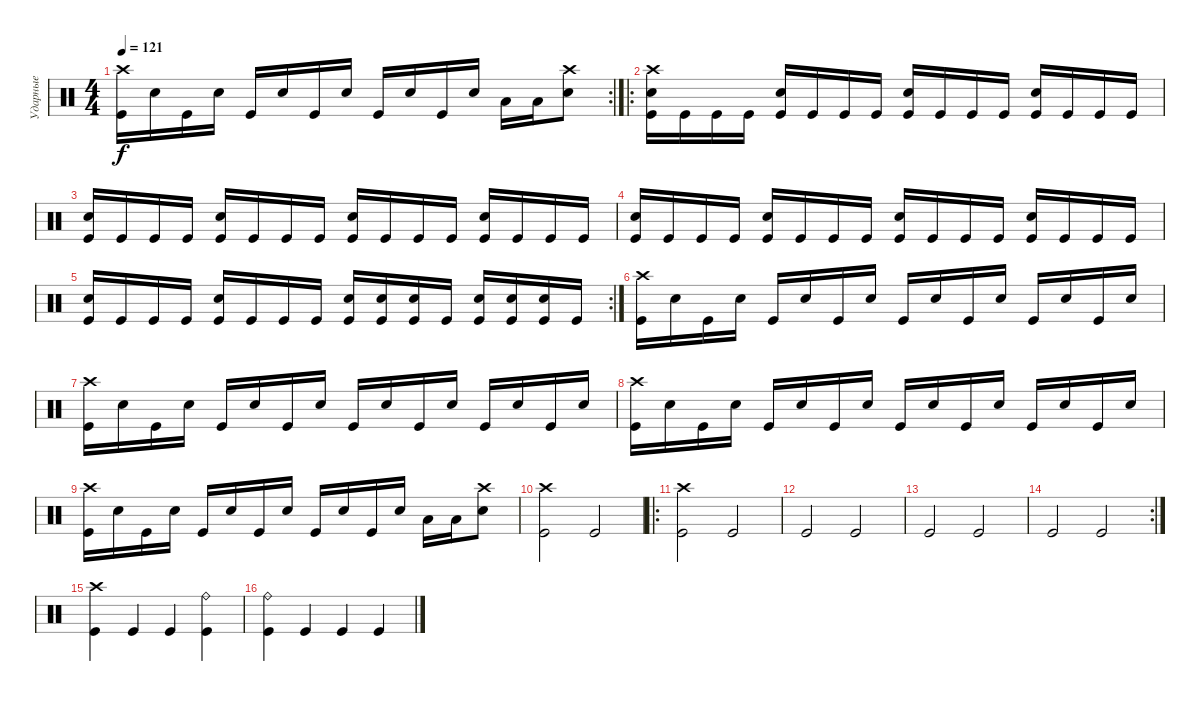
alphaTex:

\track ("Ударные" "Ударные") {instrument percussion}
\staff {score}
\articulation defaults
\rc 2
\ts (4 4)
\tempo 121
\clef neutral
\ks c
("Crash high (hit)" "Kick (hit)").16{dy f} "Electric Snare (hit)".16 "Kick (hit)".16 "Electric Snare (hit)".16 "Kick (hit)".16 "Electric Snare (hit)".16 "Kick (hit)".16 "Electric Snare (hit)".16 "Kick (hit)".16 "Electric Snare (hit)".16 "Kick (hit)".16 "Electric Snare (hit)".16 "Low Tom (hit)".16 "Low Tom (hit)".16 ("Crash high (hit)" "Electric Snare (hit)").8 |
\ro
("Crash high (hit)" "Electric Snare (hit)" "Kick (hit)").16 "Kick (hit)".16 "Kick (hit)".16 "Kick (hit)".16 ("Electric Snare (hit)" "Kick (hit)").16 "Kick (hit)".16 "Kick (hit)".16 "Kick (hit)".16 ("Electric Snare (hit)" "Kick (hit)").16 "Kick (hit)".16 "Kick (hit)".16 "Kick (hit)".16 ("Electric Snare (hit)" "Kick (hit)").16 "Kick (hit)".16 "Kick (hit)".16 "Kick (hit)".16 |
("Electric Snare (hit)" "Kick (hit)").16 "Kick (hit)".16 "Kick (hit)".16 "Kick (hit)".16 ("Electric Snare (hit)" "Kick (hit)").16 "Kick (hit)".16 "Kick (hit)".16 "Kick (hit)".16 ("Electric Snare (hit)" "Kick (hit)").16 "Kick (hit)".16 "Kick (hit)".16 "Kick (hit)".16 ("Electric Snare (hit)" "Kick (hit)").16 "Kick (hit)".16 "Kick (hit)".16 "Kick (hit)".16 |
("Electric Snare (hit)" "Kick (hit)").16 "Kick (hit)".16 "Kick (hit)".16 "Kick (hit)".16 ("Electric Snare (hit)" "Kick (hit)").16 "Kick (hit)".16 "Kick (hit)".16 "Kick (hit)".16 ("Electric Snare (hit)" "Kick (hit)").16 "Kick (hit)".16 "Kick (hit)".16 "Kick (hit)".16 ("Electric Snare (hit)" "Kick (hit)").16 "Kick (hit)".16 "Kick (hit)".16 "Kick (hit)".16 |
\rc 2
("Electric Snare (hit)" "Kick (hit)").16 "Kick (hit)".16 "Kick (hit)".16 "Kick (hit)".16 ("Electric Snare (hit)" "Kick (hit)").16 "Kick (hit)".16 "Kick (hit)".16 "Kick (hit)".16 ("Electric Snare (hit)" "Kick (hit)").16 ("Electric Snare (hit)" "Kick (hit)").16 ("Electric Snare (hit)" "Kick (hit)").16 "Kick (hit)".16 ("Electric Snare (hit)" "Kick (hit)").16 ("Electric Snare (hit)" "Kick (hit)").16 ("Electric Snare (hit)" "Kick (hit)").16 "Kick (hit)".16 |
("Crash high (hit)" "Kick (hit)").16 "Electric Snare (hit)".16 "Kick (hit)".16 "Electric Snare (hit)".16 "Kick (hit)".16 "Electric Snare (hit)".16 "Kick (hit)".16 "Electric Snare (hit)".16 "Kick (hit)".16 "Electric Snare (hit)".16 "Kick (hit)".16 "Electric Snare (hit)".16 "Kick (hit)".16 "Electric Snare (hit)".16 "Kick (hit)".16 "Electric Snare (hit)".16 |
("Crash high (hit)" "Kick (hit)").16 "Electric Snare (hit)".16 "Kick (hit)".16 "Electric Snare (hit)".16 "Kick (hit)".16 "Electric Snare (hit)".16 "Kick (hit)".16 "Electric Snare (hit)".16 "Kick (hit)".16 "Electric Snare (hit)".16 "Kick (hit)".16 "Electric Snare (hit)".16 "Kick (hit)".16 "Electric Snare (hit)".16 "Kick (hit)".16 "Electric Snare (hit)".16 |
("Crash high (hit)" "Kick (hit)").16 "Electric Snare (hit)".16 "Kick (hit)".16 "Electric Snare (hit)".16 "Kick (hit)".16 "Electric Snare (hit)".16 "Kick (hit)".16 "Electric Snare (hit)".16 "Kick (hit)".16 "Electric Snare (hit)".16 "Kick (hit)".16 "Electric Snare (hit)".16 "Kick (hit)".16 "Electric Snare (hit)".16 "Kick (hit)".16 "Electric Snare (hit)".16 |
("Crash high (hit)" "Kick (hit)").16 "Electric Snare (hit)".16 "Kick (hit)".16 "Electric Snare (hit)".16 "Kick (hit)".16 "Electric Snare (hit)".16 "Kick (hit)".16 "Electric Snare (hit)".16 "Kick (hit)".16 "Electric Snare (hit)".16 "Kick (hit)".16 "Electric Snare (hit)".16 "Low Tom (hit)".16 "Low Tom (hit)".16 ("Crash high (hit)" "Electric Snare (hit)").8 |
("Crash high (hit)" "Kick (hit)").2 "Kick (hit)".2 |
\ro
("Crash high (hit)" "Kick (hit)").2 "Kick (hit)".2 |
"Kick (hit)".2 "Kick (hit)".2 |
"Kick (hit)".2 "Kick (hit)".2 |
\rc 2 "Kick (hit)".2 "Kick (hit)".2
|
("Crash high (hit)" "Kick (hit)").4 "Kick (hit)".4 "Kick (hit)".4 ("Ride (bell)" "Kick (hit)").4 |
("Ride (bell)" "Kick (hit)").4 "Kick (hit)".4 "Kick (hit)".4 "Kick (hit)".4
